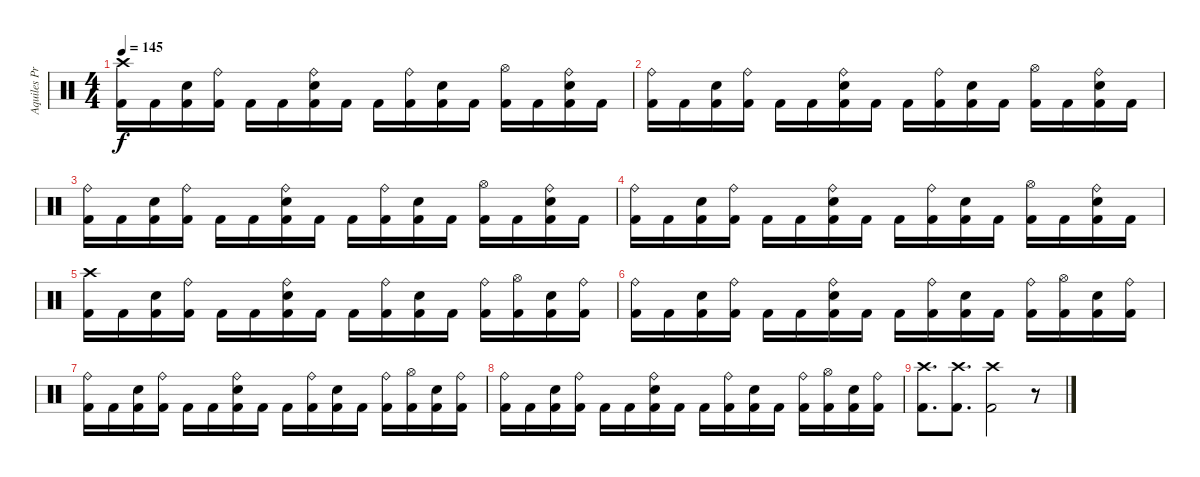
\track ("Aquiles Priester" "Aquiles Pr") {instrument percussion}
\staff {score}
\articulation defaults
\ts (4 4)
\tempo 145
\clef neutral
\ks c
("Crash high (hit)" "Kick (hit) 2").16{dy f} "Kick (hit) 2".16 ("Electric Snare (hit)" "Kick (hit) 2").16 ("Ride (bell)" "Kick (hit) 2").16 "Kick (hit) 2".16 "Kick (hit) 2".16 ("Ride (bell)" "Electric Snare (hit)" "Kick (hit) 2").16 "Kick (hit) 2".16 "Kick (hit) 2".16 ("Ride (bell)" "Kick (hit) 2").16 ("Electric Snare (hit)" "Kick (hit) 2").16 "Kick (hit) 2".16 ("Hi-Hat (open)" "Kick (hit) 2").16 "Kick (hit) 2".16 ("Ride (bell)" "Electric Snare (hit)" "Kick (hit) 2").16 "Kick (hit) 2".16 |
("Ride (bell)" "Kick (hit) 2").16 "Kick (hit) 2".16 ("Electric Snare (hit)" "Kick (hit) 2").16 ("Ride (bell)" "Kick (hit) 2").16 "Kick (hit) 2".16 "Kick (hit) 2".16 ("Ride (bell)" "Electric Snare (hit)" "Kick (hit) 2").16 "Kick (hit) 2".16 "Kick (hit) 2".16 ("Ride (bell)" "Kick (hit) 2").16 ("Electric Snare (hit)" "Kick (hit) 2").16 "Kick (hit) 2".16 ("Hi-Hat (open)" "Kick (hit) 2").16 "Kick (hit) 2".16 ("Ride (bell)" "Electric Snare (hit)" "Kick (hit) 2").16 "Kick (hit) 2".16 |
("Ride (bell)" "Kick (hit) 2").16 "Kick (hit) 2".16 ("Electric Snare (hit)" "Kick (hit) 2").16 ("Ride (bell)" "Kick (hit) 2").16 "Kick (hit) 2".16 "Kick (hit) 2".16 ("Ride (bell)" "Electric Snare (hit)" "Kick (hit) 2").16 "Kick (hit) 2".16 "Kick (hit) 2".16 ("Ride (bell)" "Kick (hit) 2").16 ("Electric Snare (hit)" "Kick (hit) 2").16 "Kick (hit) 2".16 ("Hi-Hat (open)" "Kick (hit) 2").16 "Kick (hit) 2".16 ("Ride (bell)" "Electric Snare (hit)" "Kick (hit) 2").16 "Kick (hit) 2".16 |
("Ride (bell)" "Kick (hit) 2").16 "Kick (hit) 2".16 ("Electric Snare (hit)" "Kick (hit) 2").16 ("Ride (bell)" "Kick (hit) 2").16 "Kick (hit) 2".16 "Kick (hit) 2".16 ("Ride (bell)" "Electric Snare (hit)" "Kick (hit) 2").16 "Kick (hit) 2".16 "Kick (hit) 2".16 ("Ride (bell)" "Kick (hit) 2").16 ("Electric Snare (hit)" "Kick (hit) 2").16 "Kick (hit) 2".16 ("Hi-Hat (open)" "Kick (hit) 2").16 "Kick (hit) 2".16 ("Ride (bell)" "Electric Snare (hit)" "Kick (hit) 2").16 "Kick (hit) 2".16 |
("Crash high (hit)" "Kick (hit) 2").16 "Kick (hit) 2".16 ("Electric Snare (hit)" "Kick (hit) 2").16 ("Ride (bell)" "Kick (hit) 2").16 "Kick (hit) 2".16 "Kick (hit) 2".16 ("Ride (bell)" "Electric Snare (hit)" "Kick (hit) 2").16 "Kick (hit) 2".16 "Kick (hit) 2".16 ("Ride (bell)" "Kick (hit) 2").16 ("Electric Snare (hit)" "Kick (hit) 2").16 "Kick (hit) 2".16 ("Ride (bell)" "Kick (hit) 2").16 ("Hi-Hat (open)" "Kick (hit) 2").16 ("Electric Snare (hit)" "Kick (hit) 2").16 ("Ride (bell)" "Kick (hit) 2").16 |
("Ride (bell)" "Kick (hit) 2").16 "Kick (hit) 2".16 ("Electric Snare (hit)" "Kick (hit) 2").16 ("Ride (bell)" "Kick (hit) 2").16 "Kick (hit) 2".16 "Kick (hit) 2".16 ("Ride (bell)" "Electric Snare (hit)" "Kick (hit) 2").16 "Kick (hit) 2".16 "Kick (hit) 2".16 ("Ride (bell)" "Kick (hit) 2").16 ("Electric Snare (hit)" "Kick (hit) 2").16 "Kick (hit) 2".16 ("Ride (bell)" "Kick (hit) 2").16 ("Hi-Hat (open)" "Kick (hit) 2").16 ("Electric Snare (hit)" "Kick (hit) 2").16 ("Ride (bell)" "Kick (hit) 2").16 |
("Ride (bell)" "Kick (hit) 2").16 "Kick (hit) 2".16 ("Electric Snare (hit)" "Kick (hit) 2").16 ("Ride (bell)" "Kick (hit) 2").16 "Kick (hit) 2".16 "Kick (hit) 2".16 ("Ride (bell)" "Electric Snare (hit)" "Kick (hit) 2").16 "Kick (hit) 2".16 "Kick (hit) 2".16 ("Ride (bell)" "Kick (hit) 2").16 ("Electric Snare (hit)" "Kick (hit) 2").16 "Kick (hit) 2".16 ("Ride (bell)" "Kick (hit) 2").16 ("Hi-Hat (open)" "Kick (hit) 2").16 ("Electric Snare (hit)" "Kick (hit) 2").16 ("Ride (bell)" "Kick (hit) 2").16 |
("Ride (bell)" "Kick (hit) 2").16 "Kick (hit) 2".16 ("Electric Snare (hit)" "Kick (hit) 2").16 ("Ride (bell)" "Kick (hit) 2").16 "Kick (hit) 2".16 "Kick (hit) 2".16 ("Ride (bell)" "Electric Snare (hit)" "Kick (hit) 2").16 "Kick (hit) 2".16 "Kick (hit) 2".16 ("Ride (bell)" "Kick (hit) 2").16 ("Electric Snare (hit)" "Kick (hit) 2").16 "Kick (hit) 2".16 ("Ride (bell)" "Kick (hit) 2").16 ("Hi-Hat (open)" "Kick (hit) 2").16 ("Electric Snare (hit)" "Kick (hit) 2").16 ("Ride (bell)" "Kick (hit) 2").16 |
("Crash high (hit)" "Kick (hit) 2").8{d} ("Crash high (hit)" "Kick (hit) 2").8{d} ("Crash high (hit)" "Kick (hit) 2").2 r.8
